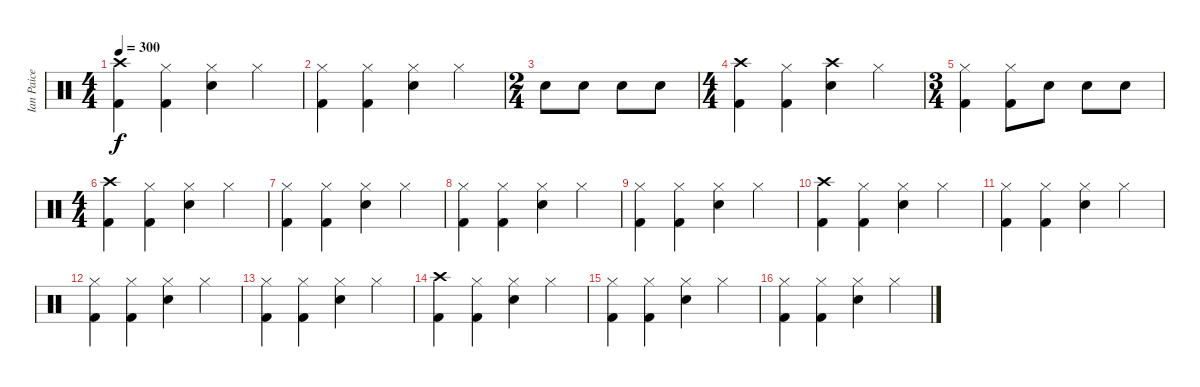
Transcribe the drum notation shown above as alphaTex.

\track ("Ian Paice" "Ian Paice") {instrument percussion}
\staff {score}
\articulation defaults
\ts (4 4)
\tempo 300
\clef neutral
\ks c
("Crash high (hit)" "Kick (hit) 2").4{dy f} ("Hi-Hat (closed)" "Kick (hit) 2").4 ("Hi-Hat (closed)" "Electric Snare (hit)").4 "Hi-Hat (closed)".4 |
("Hi-Hat (closed)" "Kick (hit) 2").4 ("Hi-Hat (closed)" "Kick (hit) 2").4 ("Hi-Hat (closed)" "Electric Snare (hit)").4 "Hi-Hat (closed)".4 |
\ts (2 4)
"Electric Snare (hit)".8 "Electric Snare (hit)".8 "Electric Snare (hit)".8 "Electric Snare (hit)".8 |
\ts (4 4)
("Crash high (hit)" "Kick (hit) 2").4 ("Hi-Hat (closed)" "Kick (hit) 2").4 ("Crash high (hit)" "Electric Snare (hit)").4 "Hi-Hat (closed)".4 |
\ts (3 4)
("Hi-Hat (closed)" "Kick (hit) 2").4 ("Hi-Hat (closed)" "Kick (hit) 2").8 "Electric Snare (hit)".8 "Electric Snare (hit)".8 "Electric Snare (hit)".8 |
\ts (4 4)
("Crash high (hit)" "Kick (hit) 2").4 ("Hi-Hat (closed)" "Kick (hit) 2").4 ("Hi-Hat (closed)" "Electric Snare (hit)").4 "Hi-Hat (closed)".4 |
("Hi-Hat (closed)" "Kick (hit) 2").4 ("Hi-Hat (closed)" "Kick (hit) 2").4 ("Hi-Hat (closed)" "Electric Snare (hit)").4 "Hi-Hat (closed)".4 |
("Hi-Hat (closed)" "Kick (hit) 2").4 ("Hi-Hat (closed)" "Kick (hit) 2").4 ("Hi-Hat (closed)" "Electric Snare (hit)").4 "Hi-Hat (closed)".4 |
("Hi-Hat (closed)" "Kick (hit) 2").4 ("Hi-Hat (closed)" "Kick (hit) 2").4 ("Hi-Hat (closed)" "Electric Snare (hit)").4 "Hi-Hat (closed)".4 |
("Crash high (hit)" "Kick (hit) 2").4 ("Hi-Hat (closed)" "Kick (hit) 2").4 ("Hi-Hat (closed)" "Electric Snare (hit)").4 "Hi-Hat (closed)".4 |
("Hi-Hat (closed)" "Kick (hit) 2").4 ("Hi-Hat (closed)" "Kick (hit) 2").4 ("Hi-Hat (closed)" "Electric Snare (hit)").4 "Hi-Hat (closed)".4 |
("Hi-Hat (closed)" "Kick (hit) 2").4 ("Hi-Hat (closed)" "Kick (hit) 2").4 ("Hi-Hat (closed)" "Electric Snare (hit)").4 "Hi-Hat (closed)".4 |
("Hi-Hat (closed)" "Kick (hit) 2").4 ("Hi-Hat (closed)" "Kick (hit) 2").4 ("Hi-Hat (closed)" "Electric Snare (hit)").4 "Hi-Hat (closed)".4 |
("Crash high (hit)" "Kick (hit) 2").4 ("Hi-Hat (closed)" "Kick (hit) 2").4 ("Hi-Hat (closed)" "Electric Snare (hit)").4 "Hi-Hat (closed)".4 |
("Hi-Hat (closed)" "Kick (hit) 2").4 ("Hi-Hat (closed)" "Kick (hit) 2").4 ("Hi-Hat (closed)" "Electric Snare (hit)").4 "Hi-Hat (closed)".4 |
("Hi-Hat (closed)" "Kick (hit) 2").4 ("Hi-Hat (closed)" "Kick (hit) 2").4 ("Hi-Hat (closed)" "Electric Snare (hit)").4 "Hi-Hat (closed)".4
